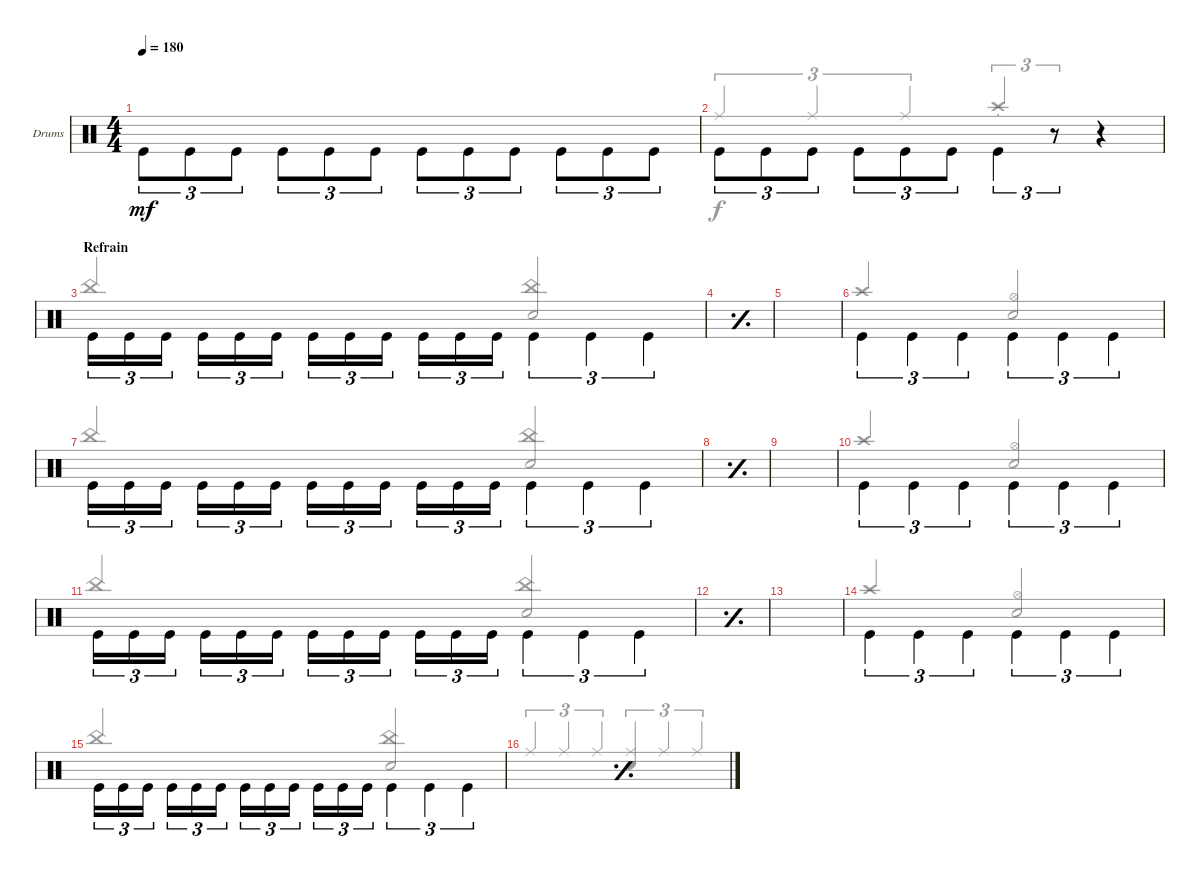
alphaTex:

\defaultSystemsLayout 4
\bracketExtendMode groupsimilarinstruments
\multiBarRest
\firstSystemTrackNameOrientation horizontal
\otherSystemsTrackNameOrientation horizontal
\track ("Drumkit" "Drums") {instrument percussion}
\staff {score}
\articulation defaults
\voice
\ts (4 4)
\tempo 180
\clef neutral
\ks c "Kick (hit)".8{tu (3 2) dy mf beam invert} "Kick (hit)".8{tu (3 2) beam invert} "Kick (hit)".8{tu (3 2) beam invert} "Kick (hit)".8{tu (3 2) beam invert} "Kick (hit)".8{tu (3 2) beam invert} "Kick (hit)".8{tu (3 2) beam invert} "Kick (hit)".8{tu (3 2) beam invert} "Kick (hit)".8{tu (3 2) beam invert} "Kick (hit)".8{tu (3 2) beam invert} "Kick (hit)".8{tu (3 2) beam invert} "Kick (hit)".8{tu (3 2) beam invert} "Kick (hit)".8{tu (3 2) beam invert}
|
"Kick (hit)".8{tu (3 2) beam invert} "Kick (hit)".8{tu (3 2) beam invert} "Kick (hit)".8{tu (3 2) beam invert} "Kick (hit)".8{tu (3 2) beam invert} "Kick (hit)".8{tu (3 2) beam invert} "Kick (hit)".8{tu (3 2) beam invert} "Kick (hit)".4{tu (3 2) beam invert} r.8{tu (3 2)} r.4 |
\section ("" "Refrain")
"Kick (hit)".16{tu (3 2) beam invert} "Kick (hit)".16{tu (3 2) beam invert} "Kick (hit)".16{tu (3 2) beam invert} "Kick (hit)".16{tu (3 2) beam invert} "Kick (hit)".16{tu (3 2) beam invert} "Kick (hit)".16{tu (3 2) beam invert} "Kick (hit)".16{tu (3 2) beam invert} "Kick (hit)".16{tu (3 2) beam invert} "Kick (hit)".16{tu (3 2) beam invert} "Kick (hit)".16{tu (3 2) beam invert} "Kick (hit)".16{tu (3 2) beam invert} "Kick (hit)".16{tu (3 2) beam invert} "Kick (hit)".4{tu (3 2) beam invert} "Kick (hit)".4{tu (3 2) beam invert} "Kick (hit)".4{tu (3 2) beam invert} |
\simile simple
|
|
\simile none "Kick (hit)".4{tu (3 2) beam invert} "Kick (hit)".4{tu (3 2) beam invert} "Kick (hit)".4{tu (3 2) beam invert} "Kick (hit)".4{tu (3 2) beam invert} "Kick (hit)".4{tu (3 2) beam invert} "Kick (hit)".4{tu (3 2) beam invert}
|
"Kick (hit)".16{tu (3 2) beam invert} "Kick (hit)".16{tu (3 2) beam invert} "Kick (hit)".16{tu (3 2) beam invert} "Kick (hit)".16{tu (3 2) beam invert} "Kick (hit)".16{tu (3 2) beam invert} "Kick (hit)".16{tu (3 2) beam invert} "Kick (hit)".16{tu (3 2) beam invert} "Kick (hit)".16{tu (3 2) beam invert} "Kick (hit)".16{tu (3 2) beam invert} "Kick (hit)".16{tu (3 2) beam invert} "Kick (hit)".16{tu (3 2) beam invert} "Kick (hit)".16{tu (3 2) beam invert} "Kick (hit)".4{tu (3 2) beam invert} "Kick (hit)".4{tu (3 2) beam invert} "Kick (hit)".4{tu (3 2) beam invert} |
\simile simple
|
|
\simile none "Kick (hit)".4{tu (3 2) beam invert} "Kick (hit)".4{tu (3 2) beam invert} "Kick (hit)".4{tu (3 2) beam invert} "Kick (hit)".4{tu (3 2) beam invert} "Kick (hit)".4{tu (3 2) beam invert} "Kick (hit)".4{tu (3 2) beam invert}
|
"Kick (hit)".16{tu (3 2) beam invert} "Kick (hit)".16{tu (3 2) beam invert} "Kick (hit)".16{tu (3 2) beam invert} "Kick (hit)".16{tu (3 2) beam invert} "Kick (hit)".16{tu (3 2) beam invert} "Kick (hit)".16{tu (3 2) beam invert} "Kick (hit)".16{tu (3 2) beam invert} "Kick (hit)".16{tu (3 2) beam invert} "Kick (hit)".16{tu (3 2) beam invert} "Kick (hit)".16{tu (3 2) beam invert} "Kick (hit)".16{tu (3 2) beam invert} "Kick (hit)".16{tu (3 2) beam invert} "Kick (hit)".4{tu (3 2) beam invert} "Kick (hit)".4{tu (3 2) beam invert} "Kick (hit)".4{tu (3 2) beam invert} |
\simile simple
|
|
\simile none "Kick (hit)".4{tu (3 2) beam invert} "Kick (hit)".4{tu (3 2) beam invert} "Kick (hit)".4{tu (3 2) beam invert} "Kick (hit)".4{tu (3 2) beam invert} "Kick (hit)".4{tu (3 2) beam invert} "Kick (hit)".4{tu (3 2) beam invert}
|
"Kick (hit)".16{tu (3 2) beam invert} "Kick (hit)".16{tu (3 2) beam invert} "Kick (hit)".16{tu (3 2) beam invert} "Kick (hit)".16{tu (3 2) beam invert} "Kick (hit)".16{tu (3 2) beam invert} "Kick (hit)".16{tu (3 2) beam invert} "Kick (hit)".16{tu (3 2) beam invert} "Kick (hit)".16{tu (3 2) beam invert} "Kick (hit)".16{tu (3 2) beam invert} "Kick (hit)".16{tu (3 2) beam invert} "Kick (hit)".16{tu (3 2) beam invert} "Kick (hit)".16{tu (3 2) beam invert} "Kick (hit)".4{tu (3 2) beam invert} "Kick (hit)".4{tu (3 2) beam invert} "Kick (hit)".4{tu (3 2) beam invert} |
\simile simple
\voice
\clef neutral
\ottava regular
\simile none
\ks c "Ride (middle)".4{tu (3 2) dy f beam invert} "Ride (middle)".4{tu (3 2) beam invert} "Ride (middle)".4{tu (3 2) beam invert}
("Ride (middle)" "Snare (hit) 2").4{tu (3 2) beam invert} "Ride (middle)".4{tu (3 2) beam invert} "Ride (middle)".4{tu (3 2) beam invert} |
"Ride (middle)".4{tu (3 2) beam invert} "Ride (middle)".4{tu (3 2) beam invert} "Ride (middle)".4{tu (3 2) beam invert} "Crash high (hit)"{st}.4{tu (3 2) beam invert} r.8{tu (3 2)} r.4 |
"China (hit)".2{beam invert} ("Snare (hit) 2" "China (hit)").2{beam invert} |
\simile simple
|
|
\simile none "Crash high (hit)".2{beam invert}
("Hi-Hat (open)" "Snare (hit) 2").2{beam invert} |
"China (hit)".2{beam invert} ("Snare (hit) 2" "China (hit)").2{beam invert} |
\simile simple
|
|
\simile none "Crash high (hit)".2{beam invert}
("Hi-Hat (open)" "Snare (hit) 2").2{beam invert} |
"China (hit)".2{beam invert} ("Snare (hit) 2" "China (hit)").2{beam invert} |
\simile simple
|
|
\simile none "Crash high (hit)".2{beam invert}
("Hi-Hat (open)" "Snare (hit) 2").2{beam invert} |
"China (hit)".2{beam invert} ("Snare (hit) 2" "China (hit)").2{beam invert} |
\simile simple
